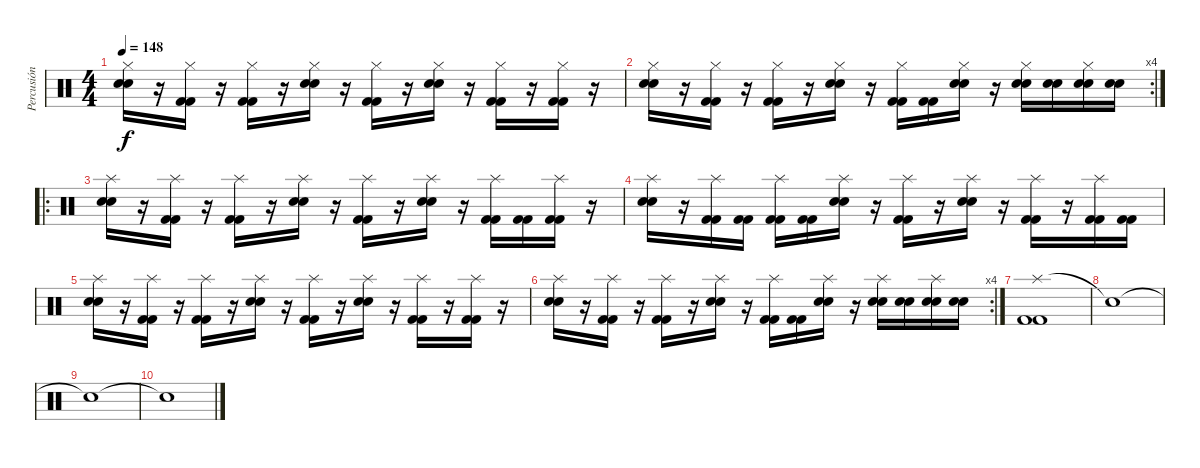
\track ("Percusión" "Percusión") {instrument percussion}
\staff {score}
\articulation defaults
\ts (4 4)
\tempo 148
\clef neutral
\ks c
("Hi-Hat (closed)" "Electric Snare (hit)" "Electric Snare (hit)").16{dy f} r.16 ("Hi-Hat (closed)" "Kick (hit) 2" "Kick (hit) 2").16 r.16 ("Hi-Hat (closed)" "Kick (hit) 2" "Kick (hit) 2").16 r.16 ("Hi-Hat (closed)" "Electric Snare (hit)" "Electric Snare (hit)").16 r.16 ("Hi-Hat (closed)" "Kick (hit) 2" "Kick (hit) 2").16 r.16 ("Hi-Hat (closed)" "Electric Snare (hit)" "Electric Snare (hit)").16 r.16 ("Hi-Hat (closed)" "Kick (hit) 2" "Kick (hit) 2").16 r.16 ("Hi-Hat (closed)" "Kick (hit) 2" "Kick (hit) 2").16 r.16 |
\rc 4
("Hi-Hat (closed)" "Electric Snare (hit)" "Electric Snare (hit)").16 r.16 ("Hi-Hat (closed)" "Kick (hit) 2" "Kick (hit) 2").16 r.16 ("Hi-Hat (closed)" "Kick (hit) 2" "Kick (hit) 2").16 r.16 ("Hi-Hat (closed)" "Electric Snare (hit)" "Electric Snare (hit)").16 r.16 ("Hi-Hat (closed)" "Kick (hit) 2" "Kick (hit) 2").16 ("Kick (hit) 2" "Kick (hit) 2").16 ("Hi-Hat (closed)" "Electric Snare (hit)" "Electric Snare (hit)").16 r.16 ("Hi-Hat (closed)" "Electric Snare (hit)" "Electric Snare (hit)").16 ("Electric Snare (hit)" "Electric Snare (hit)").16 ("Hi-Hat (closed)" "Electric Snare (hit)" "Electric Snare (hit)").16 ("Electric Snare (hit)" "Electric Snare (hit)").16 |
\ro
("Splash (hit)" "Electric Snare (hit)" "Electric Snare (hit)").16 r.16 ("Splash (hit)" "Kick (hit) 2" "Kick (hit) 2").16 r.16 ("Splash (hit)" "Kick (hit) 2" "Kick (hit) 2").16 r.16 ("Splash (hit)" "Electric Snare (hit)" "Electric Snare (hit)").16 r.16 ("Splash (hit)" "Kick (hit) 2" "Kick (hit) 2").16 r.16 ("Splash (hit)" "Electric Snare (hit)" "Electric Snare (hit)").16 r.16 ("Splash (hit)" "Kick (hit) 2" "Kick (hit) 2").16 ("Kick (hit) 2" "Kick (hit) 2").16 ("Splash (hit)" "Kick (hit) 2" "Kick (hit) 2").16 r.16 |
("Splash (hit)" "Electric Snare (hit)" "Electric Snare (hit)").16 r.16 ("Splash (hit)" "Kick (hit) 2" "Kick (hit) 2").16 ("Kick (hit) 2" "Kick (hit) 2").16 ("Splash (hit)" "Kick (hit) 2" "Kick (hit) 2").16 ("Kick (hit) 2" "Kick (hit) 2").16 ("Splash (hit)" "Electric Snare (hit)" "Electric Snare (hit)").16 r.16 ("Splash (hit)" "Kick (hit) 2" "Kick (hit) 2").16 r.16 ("Splash (hit)" "Electric Snare (hit)" "Electric Snare (hit)").16 r.16 ("Splash (hit)" "Kick (hit) 2" "Kick (hit) 2").16 r.16 ("Splash (hit)" "Kick (hit) 2" "Kick (hit) 2").16 ("Kick (hit) 2" "Kick (hit) 2").16 |
("Splash (hit)" "Electric Snare (hit)" "Electric Snare (hit)").16 r.16 ("Splash (hit)" "Kick (hit) 2" "Kick (hit) 2").16 r.16 ("Splash (hit)" "Kick (hit) 2" "Kick (hit) 2").16 r.16 ("Splash (hit)" "Electric Snare (hit)" "Electric Snare (hit)").16 r.16 ("Splash (hit)" "Kick (hit) 2" "Kick (hit) 2").16 r.16 ("Splash (hit)" "Electric Snare (hit)" "Electric Snare (hit)").16 r.16 ("Splash (hit)" "Kick (hit) 2" "Kick (hit) 2").16 r.16 ("Splash (hit)" "Kick (hit) 2" "Kick (hit) 2").16 r.16 |
\rc 4
("Splash (hit)" "Electric Snare (hit)" "Electric Snare (hit)").16 r.16 ("Splash (hit)" "Kick (hit) 2" "Kick (hit) 2").16 r.16 ("Splash (hit)" "Kick (hit) 2" "Kick (hit) 2").16 r.16 ("Splash (hit)" "Electric Snare (hit)" "Electric Snare (hit)").16 r.16 ("Splash (hit)" "Kick (hit) 2" "Kick (hit) 2").16 ("Kick (hit) 2" "Kick (hit) 2").16 ("Splash (hit)" "Electric Snare (hit)" "Electric Snare (hit)").16 r.16 ("Splash (hit)" "Electric Snare (hit)" "Electric Snare (hit)").16 ("Electric Snare (hit)" "Electric Snare (hit)").16 ("Splash (hit)" "Electric Snare (hit)" "Electric Snare (hit)").16 ("Electric Snare (hit)" "Electric Snare (hit)").16 |
("Splash (hit)" "Kick (hit) 2" "Kick (hit) 2").1 |
"Snare (hit)"{t}.1 |
"Snare (hit)"{t}.1 |
"Snare (hit)"{t}.1
